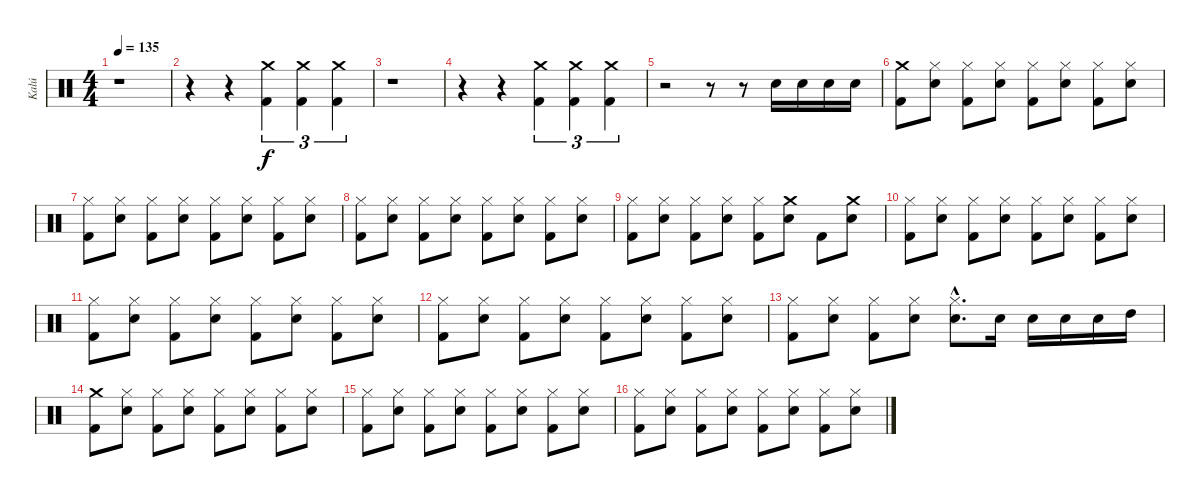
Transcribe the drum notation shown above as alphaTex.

\track ("Kalú" "Kalú") {instrument percussion}
\staff {score}
\articulation defaults
\ts (4 4)
\tempo 135
\clef neutral
\ks c
r.1{dy f} |
r.4 r.4 ("Crash medium (hit)" "Kick (hit) 2").4{tu (3 2)} ("Crash medium (hit)" "Kick (hit) 2").4{tu (3 2)} ("Crash medium (hit)" "Kick (hit) 2").4{tu (3 2)} |
r.1 |
r.4 r.4 ("Crash medium (hit)" "Kick (hit) 2").4{tu (3 2)} ("Crash medium (hit)" "Kick (hit) 2").4{tu (3 2)} ("Crash medium (hit)" "Kick (hit) 2").4{tu (3 2)} |
r.2 r.8 r.8 "Electric Snare (hit)".16 "Electric Snare (hit)".16 "Electric Snare (hit)".16 "Electric Snare (hit)".16 |
("Crash medium (hit)" "Kick (hit) 2").8 ("Hi-Hat (closed)" "Electric Snare (hit)").8 ("Hi-Hat (closed)" "Kick (hit) 2").8 ("Hi-Hat (closed)" "Electric Snare (hit)").8 ("Hi-Hat (closed)" "Kick (hit) 2").8 ("Hi-Hat (closed)" "Electric Snare (hit)").8 ("Hi-Hat (closed)" "Kick (hit) 2").8 ("Hi-Hat (closed)" "Electric Snare (hit)").8 |
("Hi-Hat (closed)" "Kick (hit) 2").8 ("Hi-Hat (closed)" "Electric Snare (hit)").8 ("Hi-Hat (closed)" "Kick (hit) 2").8 ("Hi-Hat (closed)" "Electric Snare (hit)").8 ("Hi-Hat (closed)" "Kick (hit) 2").8 ("Hi-Hat (closed)" "Electric Snare (hit)").8 ("Hi-Hat (closed)" "Kick (hit) 2").8 ("Hi-Hat (closed)" "Electric Snare (hit)").8 |
("Hi-Hat (closed)" "Kick (hit) 2").8 ("Hi-Hat (closed)" "Electric Snare (hit)").8 ("Hi-Hat (closed)" "Kick (hit) 2").8 ("Hi-Hat (closed)" "Electric Snare (hit)").8 ("Hi-Hat (closed)" "Kick (hit) 2").8 ("Hi-Hat (closed)" "Electric Snare (hit)").8 ("Hi-Hat (closed)" "Kick (hit) 2").8 ("Hi-Hat (closed)" "Electric Snare (hit)").8 |
("Hi-Hat (closed)" "Kick (hit) 2").8 ("Hi-Hat (closed)" "Electric Snare (hit)").8 ("Hi-Hat (closed)" "Kick (hit) 2").8 ("Hi-Hat (closed)" "Electric Snare (hit)").8 ("Hi-Hat (closed)" "Kick (hit) 2").8 ("Crash medium (hit)" "Electric Snare (hit)").8 "Kick (hit) 2".8 ("Crash medium (hit)" "Electric Snare (hit)").8 |
("Hi-Hat (closed)" "Kick (hit) 2").8 ("Hi-Hat (closed)" "Electric Snare (hit)").8 ("Hi-Hat (closed)" "Kick (hit) 2").8 ("Hi-Hat (closed)" "Electric Snare (hit)").8 ("Hi-Hat (closed)" "Kick (hit) 2").8 ("Hi-Hat (closed)" "Electric Snare (hit)").8 ("Hi-Hat (closed)" "Kick (hit) 2").8 ("Hi-Hat (closed)" "Electric Snare (hit)").8 |
("Hi-Hat (closed)" "Kick (hit) 2").8 ("Hi-Hat (closed)" "Electric Snare (hit)").8 ("Hi-Hat (closed)" "Kick (hit) 2").8 ("Hi-Hat (closed)" "Electric Snare (hit)").8 ("Hi-Hat (closed)" "Kick (hit) 2").8 ("Hi-Hat (closed)" "Electric Snare (hit)").8 ("Hi-Hat (closed)" "Kick (hit) 2").8 ("Hi-Hat (closed)" "Electric Snare (hit)").8 |
("Hi-Hat (closed)" "Kick (hit) 2").8 ("Hi-Hat (closed)" "Electric Snare (hit)").8 ("Hi-Hat (closed)" "Kick (hit) 2").8 ("Hi-Hat (closed)" "Electric Snare (hit)").8 ("Hi-Hat (closed)" "Kick (hit) 2").8 ("Hi-Hat (closed)" "Electric Snare (hit)").8 ("Hi-Hat (closed)" "Kick (hit) 2").8 ("Hi-Hat (closed)" "Electric Snare (hit)").8 |
("Hi-Hat (closed)" "Kick (hit) 2").8 ("Hi-Hat (closed)" "Electric Snare (hit)").8 ("Hi-Hat (closed)" "Kick (hit) 2").8 ("Hi-Hat (closed)" "Electric Snare (hit)").8 ("Hi-Hat (closed)"{hac} "Electric Snare (hit)"{hac}).8{d} "Electric Snare (hit)".16 "Electric Snare (hit)".16 "Electric Snare (hit)".16 "Electric Snare (hit)".16 "High Tom (hit)".16 |
("Crash medium (hit)" "Kick (hit) 2").8 ("Hi-Hat (closed)" "Electric Snare (hit)").8 ("Hi-Hat (closed)" "Kick (hit) 2").8 ("Hi-Hat (closed)" "Electric Snare (hit)").8 ("Hi-Hat (closed)" "Kick (hit) 2").8 ("Hi-Hat (closed)" "Electric Snare (hit)").8 ("Hi-Hat (closed)" "Kick (hit) 2").8 ("Hi-Hat (closed)" "Electric Snare (hit)").8 |
("Hi-Hat (closed)" "Kick (hit) 2").8 ("Hi-Hat (closed)" "Electric Snare (hit)").8 ("Hi-Hat (closed)" "Kick (hit) 2").8 ("Hi-Hat (closed)" "Electric Snare (hit)").8 ("Hi-Hat (closed)" "Kick (hit) 2").8 ("Hi-Hat (closed)" "Electric Snare (hit)").8 ("Hi-Hat (closed)" "Kick (hit) 2").8 ("Hi-Hat (closed)" "Electric Snare (hit)").8 |
("Hi-Hat (closed)" "Kick (hit) 2").8 ("Hi-Hat (closed)" "Electric Snare (hit)").8 ("Hi-Hat (closed)" "Kick (hit) 2").8 ("Hi-Hat (closed)" "Electric Snare (hit)").8 ("Hi-Hat (closed)" "Kick (hit) 2").8 ("Hi-Hat (closed)" "Electric Snare (hit)").8 ("Hi-Hat (closed)" "Kick (hit) 2").8 ("Hi-Hat (closed)" "Electric Snare (hit)").8
